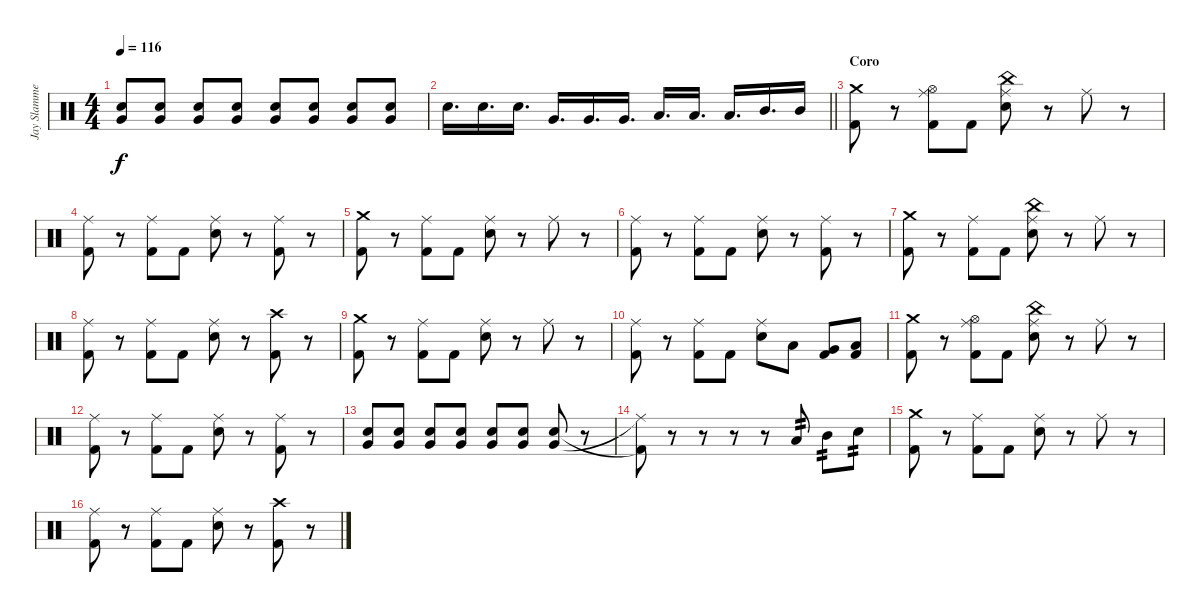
\track ("Jay Slammer " "Jay Slamme") {instrument percussion}
\staff {score}
\articulation defaults
\ts (4 4)
\tempo 116
\clef neutral
\ks c
("Electric Snare (hit)" "Very Low Tom (hit)").8{dy f} ("Electric Snare (hit)" "Very Low Tom (hit)").8 ("Electric Snare (hit)" "Very Low Tom (hit)").8 ("Electric Snare (hit)" "Very Low Tom (hit)").8 ("Electric Snare (hit)" "Very Low Tom (hit)").8 ("Electric Snare (hit)" "Very Low Tom (hit)").8 ("Electric Snare (hit)" "Very Low Tom (hit)").8 ("Electric Snare (hit)" "Very Low Tom (hit)").8 |
\barLineRight lightlight "Electric Snare (hit)".16{d} "Electric Snare (hit)".16{d} "Electric Snare (hit)".16{d} "Very Low Tom (hit)".16{d} "Very Low Tom (hit)".16{d} "Very Low Tom (hit)".16{d} "Low Tom (hit)".16{d} "Low Tom (hit)".16{d} "Low Tom (hit)".16{d} "Mid Tom (hit)".16{d} "Mid Tom (hit)".16
|
\section ("" "Coro")
("Crash medium (hit)" "Kick (hit) 2").8 r.8 ("Hi-Hat (open)" "Ride (middle)" "Kick (hit) 2").8 "Kick (hit) 2".8 ("China (hit)" "Ride (middle)" "Snare (hit) 2").8 r.8 "Ride (middle)".8 r.8 |
("Ride (middle)" "Kick (hit) 2").8 r.8 ("Ride (middle)" "Kick (hit) 2").8 "Kick (hit) 2".8 ("Ride (middle)" "Snare (hit) 2").8 r.8 ("Ride (middle)" "Kick (hit) 2").8 r.8 |
("Crash medium (hit)" "Kick (hit) 2").8 r.8 ("Ride (middle)" "Kick (hit) 2").8 "Kick (hit) 2".8 ("Ride (middle)" "Snare (hit) 2").8 r.8 "Ride (middle)".8 r.8 |
("Ride (middle)" "Kick (hit) 2").8 r.8 ("Ride (middle)" "Kick (hit) 2").8 "Kick (hit) 2".8 ("Ride (middle)" "Snare (hit) 2").8 r.8 ("Ride (middle)" "Kick (hit) 2").8 r.8 |
("Crash medium (hit)" "Kick (hit) 2").8 r.8 ("Ride (middle)" "Kick (hit) 2").8 "Kick (hit) 2".8 ("China (hit)" "Ride (middle)" "Snare (hit) 2").8 r.8 "Ride (middle)".8 r.8 |
("Ride (middle)" "Kick (hit) 2").8 r.8 ("Ride (middle)" "Kick (hit) 2").8 "Kick (hit) 2".8 ("Ride (middle)" "Snare (hit) 2").8 r.8 ("Crash high (hit)" "Kick (hit) 2").8 r.8 |
("Crash medium (hit)" "Kick (hit) 2").8 r.8 ("Ride (middle)" "Kick (hit) 2").8 "Kick (hit) 2".8 ("Ride (middle)" "Snare (hit) 2").8 r.8 "Ride (middle)".8 r.8 |
("Ride (middle)" "Kick (hit) 2").8 r.8 ("Ride (middle)" "Kick (hit) 2").8 "Kick (hit) 2".8 ("Ride (middle)" "Snare (hit) 2").8 "Low Tom (hit)".8 ("Very Low Tom (hit)" "Kick (hit) 2").8 ("Kick (hit) 2" "Low Tom (hit)").8 |
("Crash medium (hit)" "Kick (hit) 2").8 r.8 ("Hi-Hat (open)" "Ride (middle)" "Kick (hit) 2").8 "Kick (hit) 2".8 ("China (hit)" "Ride (middle)" "Snare (hit) 2").8 r.8 "Ride (middle)".8 r.8 |
("Ride (middle)" "Kick (hit) 2").8 r.8 ("Ride (middle)" "Kick (hit) 2").8 "Kick (hit) 2".8 ("Ride (middle)" "Snare (hit) 2").8 r.8 ("Ride (middle)" "Kick (hit) 2").8 r.8 |
("Very Low Tom (hit)" "Snare (hit) 2").8 ("Very Low Tom (hit)" "Snare (hit) 2").8 ("Very Low Tom (hit)" "Snare (hit) 2").8 ("Very Low Tom (hit)" "Snare (hit) 2").8 ("Very Low Tom (hit)" "Snare (hit) 2").8 ("Very Low Tom (hit)" "Snare (hit) 2").8 ("Very Low Tom (hit)" "Snare (hit) 2").8 r.8 |
("Ride (middle)"{t} "Kick (hit) 2"{t}).8 r.8 r.8 r.8 r.8 "Low Tom (hit)".8{tp 2} "Mid Tom (hit)".8{tp 2} "Snare (hit) 2".8{tp 2} |
("Crash medium (hit)" "Kick (hit) 2").8 r.8 ("Ride (middle)" "Kick (hit) 2").8 "Kick (hit) 2".8 ("Ride (middle)" "Snare (hit) 2").8 r.8 "Ride (middle)".8 r.8 |
("Ride (middle)" "Kick (hit) 2").8 r.8 ("Ride (middle)" "Kick (hit) 2").8 "Kick (hit) 2".8 ("Ride (middle)" "Snare (hit) 2").8 r.8 ("Crash high (hit)" "Kick (hit) 2").8 r.8
